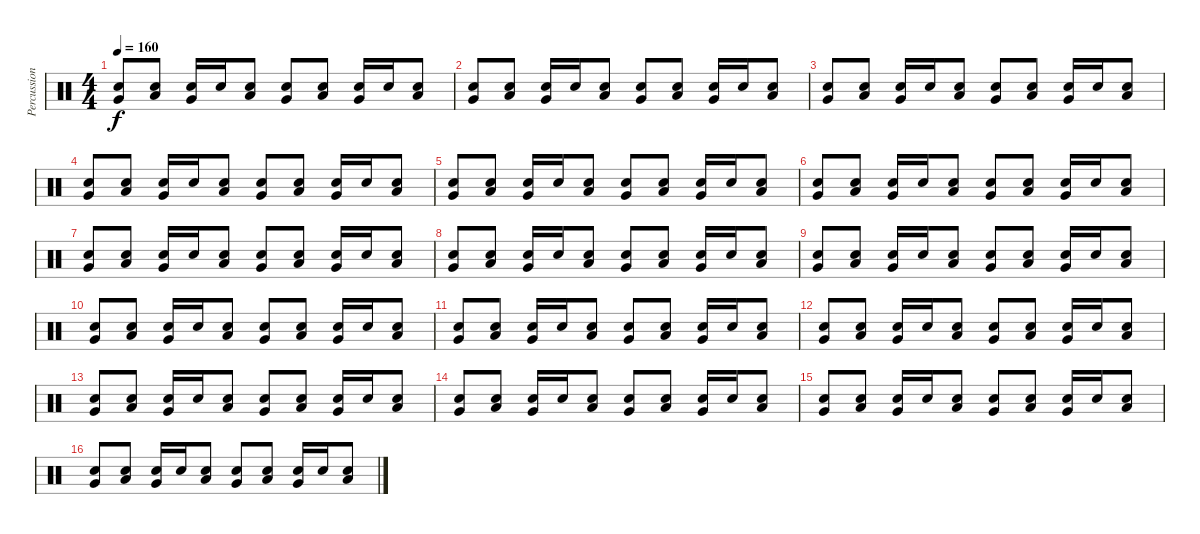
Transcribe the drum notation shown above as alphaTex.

\track ("Percussions" "Percussion") {instrument percussion}
\staff {score}
\articulation defaults
\ts (4 4)
\tempo 160
\clef neutral
\ks c
("Snare (hit) 2" "Very Low Tom (hit)").8{dy f} ("Snare (hit) 2" "Low Tom (hit)").8 ("Snare (hit) 2" "Very Low Tom (hit)").16 "Snare (hit) 2".16 ("Snare (hit) 2" "Low Tom (hit)").8 ("Snare (hit) 2" "Very Low Tom (hit)").8 ("Snare (hit) 2" "Low Tom (hit)").8 ("Snare (hit) 2" "Very Low Tom (hit)").16 "Snare (hit) 2".16 ("Snare (hit) 2" "Low Tom (hit)").8 |
("Snare (hit) 2" "Very Low Tom (hit)").8 ("Snare (hit) 2" "Low Tom (hit)").8 ("Snare (hit) 2" "Very Low Tom (hit)").16 "Snare (hit) 2".16 ("Snare (hit) 2" "Low Tom (hit)").8 ("Snare (hit) 2" "Very Low Tom (hit)").8 ("Snare (hit) 2" "Low Tom (hit)").8 ("Snare (hit) 2" "Very Low Tom (hit)").16 "Snare (hit) 2".16 ("Snare (hit) 2" "Low Tom (hit)").8 |
("Snare (hit) 2" "Very Low Tom (hit)").8 ("Snare (hit) 2" "Low Tom (hit)").8 ("Snare (hit) 2" "Very Low Tom (hit)").16 "Snare (hit) 2".16 ("Snare (hit) 2" "Low Tom (hit)").8 ("Snare (hit) 2" "Very Low Tom (hit)").8 ("Snare (hit) 2" "Low Tom (hit)").8 ("Snare (hit) 2" "Very Low Tom (hit)").16 "Snare (hit) 2".16 ("Snare (hit) 2" "Low Tom (hit)").8 |
("Snare (hit) 2" "Very Low Tom (hit)").8 ("Snare (hit) 2" "Low Tom (hit)").8 ("Snare (hit) 2" "Very Low Tom (hit)").16 "Snare (hit) 2".16 ("Snare (hit) 2" "Low Tom (hit)").8 ("Snare (hit) 2" "Very Low Tom (hit)").8 ("Snare (hit) 2" "Low Tom (hit)").8 ("Snare (hit) 2" "Very Low Tom (hit)").16 "Snare (hit) 2".16 ("Snare (hit) 2" "Low Tom (hit)").8 |
("Snare (hit) 2" "Very Low Tom (hit)").8 ("Snare (hit) 2" "Low Tom (hit)").8 ("Snare (hit) 2" "Very Low Tom (hit)").16 "Snare (hit) 2".16 ("Snare (hit) 2" "Low Tom (hit)").8 ("Snare (hit) 2" "Very Low Tom (hit)").8 ("Snare (hit) 2" "Low Tom (hit)").8 ("Snare (hit) 2" "Very Low Tom (hit)").16 "Snare (hit) 2".16 ("Snare (hit) 2" "Low Tom (hit)").8 |
("Snare (hit) 2" "Very Low Tom (hit)").8 ("Snare (hit) 2" "Low Tom (hit)").8 ("Snare (hit) 2" "Very Low Tom (hit)").16 "Snare (hit) 2".16 ("Snare (hit) 2" "Low Tom (hit)").8 ("Snare (hit) 2" "Very Low Tom (hit)").8 ("Snare (hit) 2" "Low Tom (hit)").8 ("Snare (hit) 2" "Very Low Tom (hit)").16 "Snare (hit) 2".16 ("Snare (hit) 2" "Low Tom (hit)").8 |
("Snare (hit) 2" "Very Low Tom (hit)").8 ("Snare (hit) 2" "Low Tom (hit)").8 ("Snare (hit) 2" "Very Low Tom (hit)").16 "Snare (hit) 2".16 ("Snare (hit) 2" "Low Tom (hit)").8 ("Snare (hit) 2" "Very Low Tom (hit)").8 ("Snare (hit) 2" "Low Tom (hit)").8 ("Snare (hit) 2" "Very Low Tom (hit)").16 "Snare (hit) 2".16 ("Snare (hit) 2" "Low Tom (hit)").8 |
("Snare (hit) 2" "Very Low Tom (hit)").8 ("Snare (hit) 2" "Low Tom (hit)").8 ("Snare (hit) 2" "Very Low Tom (hit)").16 "Snare (hit) 2".16 ("Snare (hit) 2" "Low Tom (hit)").8 ("Snare (hit) 2" "Very Low Tom (hit)").8 ("Snare (hit) 2" "Low Tom (hit)").8 ("Snare (hit) 2" "Very Low Tom (hit)").16 "Snare (hit) 2".16 ("Snare (hit) 2" "Low Tom (hit)").8 |
("Snare (hit) 2" "Very Low Tom (hit)").8 ("Snare (hit) 2" "Low Tom (hit)").8 ("Snare (hit) 2" "Very Low Tom (hit)").16 "Snare (hit) 2".16 ("Snare (hit) 2" "Low Tom (hit)").8 ("Snare (hit) 2" "Very Low Tom (hit)").8 ("Snare (hit) 2" "Low Tom (hit)").8 ("Snare (hit) 2" "Very Low Tom (hit)").16 "Snare (hit) 2".16 ("Snare (hit) 2" "Low Tom (hit)").8 |
("Snare (hit) 2" "Very Low Tom (hit)").8 ("Snare (hit) 2" "Low Tom (hit)").8 ("Snare (hit) 2" "Very Low Tom (hit)").16 "Snare (hit) 2".16 ("Snare (hit) 2" "Low Tom (hit)").8 ("Snare (hit) 2" "Very Low Tom (hit)").8 ("Snare (hit) 2" "Low Tom (hit)").8 ("Snare (hit) 2" "Very Low Tom (hit)").16 "Snare (hit) 2".16 ("Snare (hit) 2" "Low Tom (hit)").8 |
("Snare (hit) 2" "Very Low Tom (hit)").8 ("Snare (hit) 2" "Low Tom (hit)").8 ("Snare (hit) 2" "Very Low Tom (hit)").16 "Snare (hit) 2".16 ("Snare (hit) 2" "Low Tom (hit)").8 ("Snare (hit) 2" "Very Low Tom (hit)").8 ("Snare (hit) 2" "Low Tom (hit)").8 ("Snare (hit) 2" "Very Low Tom (hit)").16 "Snare (hit) 2".16 ("Snare (hit) 2" "Low Tom (hit)").8 |
("Snare (hit) 2" "Very Low Tom (hit)").8 ("Snare (hit) 2" "Low Tom (hit)").8 ("Snare (hit) 2" "Very Low Tom (hit)").16 "Snare (hit) 2".16 ("Snare (hit) 2" "Low Tom (hit)").8 ("Snare (hit) 2" "Very Low Tom (hit)").8 ("Snare (hit) 2" "Low Tom (hit)").8 ("Snare (hit) 2" "Very Low Tom (hit)").16 "Snare (hit) 2".16 ("Snare (hit) 2" "Low Tom (hit)").8 |
("Snare (hit) 2" "Very Low Tom (hit)").8 ("Snare (hit) 2" "Low Tom (hit)").8 ("Snare (hit) 2" "Very Low Tom (hit)").16 "Snare (hit) 2".16 ("Snare (hit) 2" "Low Tom (hit)").8 ("Snare (hit) 2" "Very Low Tom (hit)").8 ("Snare (hit) 2" "Low Tom (hit)").8 ("Snare (hit) 2" "Very Low Tom (hit)").16 "Snare (hit) 2".16 ("Snare (hit) 2" "Low Tom (hit)").8 |
("Snare (hit) 2" "Very Low Tom (hit)").8 ("Snare (hit) 2" "Low Tom (hit)").8 ("Snare (hit) 2" "Very Low Tom (hit)").16 "Snare (hit) 2".16 ("Snare (hit) 2" "Low Tom (hit)").8 ("Snare (hit) 2" "Very Low Tom (hit)").8 ("Snare (hit) 2" "Low Tom (hit)").8 ("Snare (hit) 2" "Very Low Tom (hit)").16 "Snare (hit) 2".16 ("Snare (hit) 2" "Low Tom (hit)").8 |
("Snare (hit) 2" "Very Low Tom (hit)").8 ("Snare (hit) 2" "Low Tom (hit)").8 ("Snare (hit) 2" "Very Low Tom (hit)").16 "Snare (hit) 2".16 ("Snare (hit) 2" "Low Tom (hit)").8 ("Snare (hit) 2" "Very Low Tom (hit)").8 ("Snare (hit) 2" "Low Tom (hit)").8 ("Snare (hit) 2" "Very Low Tom (hit)").16 "Snare (hit) 2".16 ("Snare (hit) 2" "Low Tom (hit)").8 |
("Snare (hit) 2" "Very Low Tom (hit)").8 ("Snare (hit) 2" "Low Tom (hit)").8 ("Snare (hit) 2" "Very Low Tom (hit)").16 "Snare (hit) 2".16 ("Snare (hit) 2" "Low Tom (hit)").8 ("Snare (hit) 2" "Very Low Tom (hit)").8 ("Snare (hit) 2" "Low Tom (hit)").8 ("Snare (hit) 2" "Very Low Tom (hit)").16 "Snare (hit) 2".16 ("Snare (hit) 2" "Low Tom (hit)").8
